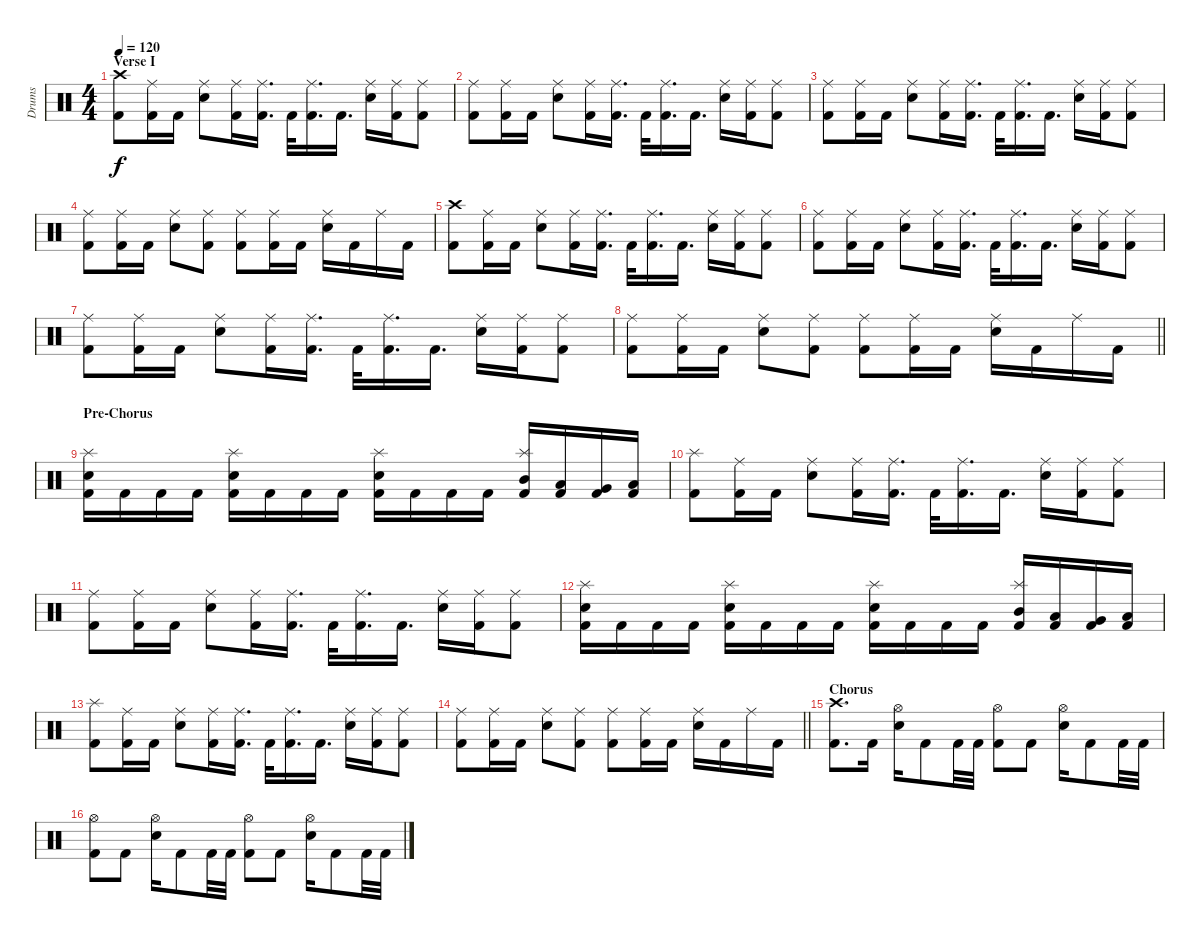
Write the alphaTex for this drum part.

\track ("Drums" "Drums") {instrument percussion}
\staff {score}
\articulation defaults
\ts (4 4)
\section ("" "Verse I")
\tempo 120
\clef neutral
\ks c
("Crash high (hit)" "Kick (hit) 2").8{dy f} ("Ride (middle)" "Kick (hit) 2").16 "Kick (hit) 2".16 ("Ride (middle)" "Snare (hit) 2").8 ("Ride (middle)" "Kick (hit) 2").16 ("Ride (middle)" "Kick (hit) 2").16{d} "Kick (hit) 2".32 ("Ride (middle)" "Kick (hit) 2").16{d} "Kick (hit) 2".16{d} ("Ride (middle)" "Snare (hit) 2").16 ("Ride (middle)" "Kick (hit) 2").16 ("Ride (middle)" "Kick (hit) 2").8 |
("Ride (middle)" "Kick (hit) 2").8 ("Ride (middle)" "Kick (hit) 2").16 "Kick (hit) 2".16 ("Ride (middle)" "Snare (hit) 2").8 ("Ride (middle)" "Kick (hit) 2").16 ("Ride (middle)" "Kick (hit) 2").16{d} "Kick (hit) 2".32 ("Ride (middle)" "Kick (hit) 2").16{d} "Kick (hit) 2".16{d} ("Ride (middle)" "Snare (hit) 2").16 ("Ride (middle)" "Kick (hit) 2").16 ("Ride (middle)" "Kick (hit) 2").8 |
("Ride (middle)" "Kick (hit) 2").8 ("Ride (middle)" "Kick (hit) 2").16 "Kick (hit) 2".16 ("Ride (middle)" "Snare (hit) 2").8 ("Ride (middle)" "Kick (hit) 2").16 ("Ride (middle)" "Kick (hit) 2").16{d} "Kick (hit) 2".32 ("Ride (middle)" "Kick (hit) 2").16{d} "Kick (hit) 2".16{d} ("Ride (middle)" "Snare (hit) 2").16 ("Ride (middle)" "Kick (hit) 2").16 ("Ride (middle)" "Kick (hit) 2").8 |
("Ride (middle)" "Kick (hit) 2").8 ("Ride (middle)" "Kick (hit) 2").16 "Kick (hit) 2".16 ("Ride (middle)" "Snare (hit) 2").8 ("Ride (middle)" "Kick (hit) 2").8 ("Ride (middle)" "Kick (hit) 2").8 ("Ride (middle)" "Kick (hit) 2").16 "Kick (hit) 2".16 ("Ride (middle)" "Snare (hit) 2").16 "Kick (hit) 2".16 "Ride (middle)".16 "Kick (hit) 2".16 |
("Crash high (hit)" "Kick (hit) 2").8 ("Ride (middle)" "Kick (hit) 2").16 "Kick (hit) 2".16 ("Ride (middle)" "Snare (hit) 2").8 ("Ride (middle)" "Kick (hit) 2").16 ("Ride (middle)" "Kick (hit) 2").16{d} "Kick (hit) 2".32 ("Ride (middle)" "Kick (hit) 2").16{d} "Kick (hit) 2".16{d} ("Ride (middle)" "Snare (hit) 2").16 ("Ride (middle)" "Kick (hit) 2").16 ("Ride (middle)" "Kick (hit) 2").8 |
("Ride (middle)" "Kick (hit) 2").8 ("Ride (middle)" "Kick (hit) 2").16 "Kick (hit) 2".16 ("Ride (middle)" "Snare (hit) 2").8 ("Ride (middle)" "Kick (hit) 2").16 ("Ride (middle)" "Kick (hit) 2").16{d} "Kick (hit) 2".32 ("Ride (middle)" "Kick (hit) 2").16{d} "Kick (hit) 2".16{d} ("Ride (middle)" "Snare (hit) 2").16 ("Ride (middle)" "Kick (hit) 2").16 ("Ride (middle)" "Kick (hit) 2").8 |
("Ride (middle)" "Kick (hit) 2").8 ("Ride (middle)" "Kick (hit) 2").16 "Kick (hit) 2".16 ("Ride (middle)" "Snare (hit) 2").8 ("Ride (middle)" "Kick (hit) 2").16 ("Ride (middle)" "Kick (hit) 2").16{d} "Kick (hit) 2".32 ("Ride (middle)" "Kick (hit) 2").16{d} "Kick (hit) 2".16{d} ("Ride (middle)" "Snare (hit) 2").16 ("Ride (middle)" "Kick (hit) 2").16 ("Ride (middle)" "Kick (hit) 2").8 |
\barLineRight lightlight
("Ride (middle)" "Kick (hit) 2").8 ("Ride (middle)" "Kick (hit) 2").16 "Kick (hit) 2".16 ("Ride (middle)" "Snare (hit) 2").8 ("Ride (middle)" "Kick (hit) 2").8 ("Ride (middle)" "Kick (hit) 2").8 ("Ride (middle)" "Kick (hit) 2").16 "Kick (hit) 2".16 ("Ride (middle)" "Snare (hit) 2").16 "Kick (hit) 2".16 "Ride (middle)".16 "Kick (hit) 2".16 |
\section ("" "Pre-Chorus")
("Splash (hit)" "Snare (hit) 2" "Kick (hit) 2").16 "Kick (hit) 2".16 "Kick (hit) 2".16 "Kick (hit) 2".16 ("Splash (hit)" "Snare (hit) 2" "Kick (hit) 2").16 "Kick (hit) 2".16 "Kick (hit) 2".16 "Kick (hit) 2".16 ("Splash (hit)" "Snare (hit) 2" "Kick (hit) 2").16 "Kick (hit) 2".16 "Kick (hit) 2".16 "Kick (hit) 2".16 ("Splash (hit)" "Mid Tom (hit)" "Kick (hit) 2").16 ("Low Tom (hit)" "Kick (hit) 2").16 ("Very Low Tom (hit)" "Kick (hit) 2").16 ("Low Floor Tom (hit)" "Kick (hit) 2").16 |
("Splash (hit)" "Kick (hit) 2").8 ("Ride (middle)" "Kick (hit) 2").16 "Kick (hit) 2".16 ("Ride (middle)" "Snare (hit) 2").8 ("Ride (middle)" "Kick (hit) 2").16 ("Ride (middle)" "Kick (hit) 2").16{d} "Kick (hit) 2".32 ("Ride (middle)" "Kick (hit) 2").16{d} "Kick (hit) 2".16{d} ("Ride (middle)" "Snare (hit) 2").16 ("Ride (middle)" "Kick (hit) 2").16 ("Ride (middle)" "Kick (hit) 2").8 |
("Ride (middle)" "Kick (hit) 2").8 ("Ride (middle)" "Kick (hit) 2").16 "Kick (hit) 2".16 ("Ride (middle)" "Snare (hit) 2").8 ("Ride (middle)" "Kick (hit) 2").16 ("Ride (middle)" "Kick (hit) 2").16{d} "Kick (hit) 2".32 ("Ride (middle)" "Kick (hit) 2").16{d} "Kick (hit) 2".16{d} ("Ride (middle)" "Snare (hit) 2").16 ("Ride (middle)" "Kick (hit) 2").16 ("Ride (middle)" "Kick (hit) 2").8 |
("Splash (hit)" "Snare (hit) 2" "Kick (hit) 2").16 "Kick (hit) 2".16 "Kick (hit) 2".16 "Kick (hit) 2".16 ("Splash (hit)" "Snare (hit) 2" "Kick (hit) 2").16 "Kick (hit) 2".16 "Kick (hit) 2".16 "Kick (hit) 2".16 ("Splash (hit)" "Snare (hit) 2" "Kick (hit) 2").16 "Kick (hit) 2".16 "Kick (hit) 2".16 "Kick (hit) 2".16 ("Splash (hit)" "Mid Tom (hit)" "Kick (hit) 2").16 ("Low Tom (hit)" "Kick (hit) 2").16 ("Very Low Tom (hit)" "Kick (hit) 2").16 ("Low Floor Tom (hit)" "Kick (hit) 2").16 |
("Splash (hit)" "Kick (hit) 2").8 ("Ride (middle)" "Kick (hit) 2").16 "Kick (hit) 2".16 ("Ride (middle)" "Snare (hit) 2").8 ("Ride (middle)" "Kick (hit) 2").16 ("Ride (middle)" "Kick (hit) 2").16{d} "Kick (hit) 2".32 ("Ride (middle)" "Kick (hit) 2").16{d} "Kick (hit) 2".16{d} ("Ride (middle)" "Snare (hit) 2").16 ("Ride (middle)" "Kick (hit) 2").16 ("Ride (middle)" "Kick (hit) 2").8 |
\barLineRight lightlight
("Ride (middle)" "Kick (hit) 2").8 ("Ride (middle)" "Kick (hit) 2").16 "Kick (hit) 2".16 ("Ride (middle)" "Snare (hit) 2").8 ("Ride (middle)" "Kick (hit) 2").8 ("Ride (middle)" "Kick (hit) 2").8 ("Ride (middle)" "Kick (hit) 2").16 "Kick (hit) 2".16 ("Ride (middle)" "Snare (hit) 2").16 "Kick (hit) 2".16 "Ride (middle)".16 "Kick (hit) 2".16 |
\section ("" "Chorus")
("Crash high (hit)" "Kick (hit) 2").8{d} "Kick (hit) 2".16 ("Hi-Hat (open)" "Snare (hit) 2").16 "Kick (hit) 2".8 "Kick (hit) 2".32 "Kick (hit) 2".32 ("Hi-Hat (open)" "Kick (hit) 2").8 "Kick (hit) 2".8 ("Hi-Hat (open)" "Snare (hit) 2").16 "Kick (hit) 2".8 "Kick (hit) 2".32 "Kick (hit) 2".32 |
("Hi-Hat (open)" "Kick (hit) 2").8 "Kick (hit) 2".8 ("Hi-Hat (open)" "Snare (hit) 2").16 "Kick (hit) 2".8 "Kick (hit) 2".32 "Kick (hit) 2".32 ("Hi-Hat (open)" "Kick (hit) 2").8 "Kick (hit) 2".8 ("Hi-Hat (open)" "Snare (hit) 2").16 "Kick (hit) 2".8 "Kick (hit) 2".32 "Kick (hit) 2".32
